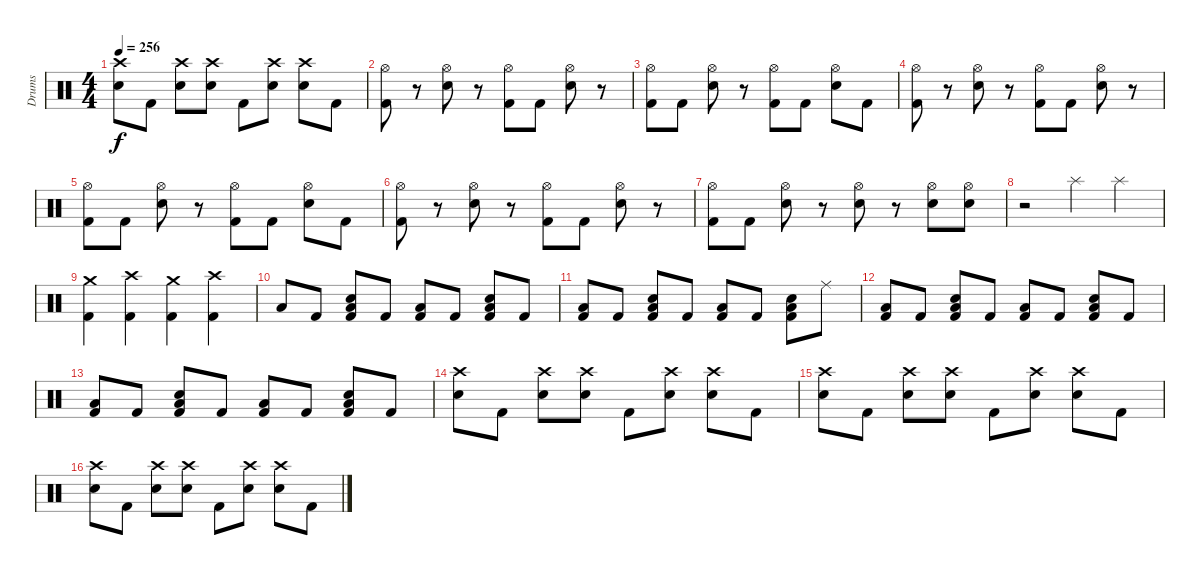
\track ("Drums" "Drums") {instrument percussion}
\staff {score}
\articulation defaults
\ts (4 4)
\tempo 256
\clef neutral
\ks c
("Crash high (hit)" "Electric Snare (hit)").8{dy f} "Kick (hit) 2".8 ("Crash high (hit)" "Electric Snare (hit)").8 ("Crash high (hit)" "Electric Snare (hit)").8 "Kick (hit) 2".8 ("Crash high (hit)" "Electric Snare (hit)").8 ("Crash high (hit)" "Electric Snare (hit)").8 "Kick (hit) 2".8 |
("Hi-Hat (open)" "Kick (hit) 2").8 r.8 ("Hi-Hat (open)" "Electric Snare (hit)").8 r.8 ("Hi-Hat (open)" "Kick (hit) 2").8 "Kick (hit) 2".8 ("Hi-Hat (open)" "Electric Snare (hit)").8 r.8 |
("Hi-Hat (open)" "Kick (hit) 2").8 "Kick (hit) 2".8 ("Hi-Hat (open)" "Electric Snare (hit)").8 r.8 ("Hi-Hat (open)" "Kick (hit) 2").8 "Kick (hit) 2".8 ("Hi-Hat (open)" "Electric Snare (hit)").8 "Kick (hit) 2".8 |
("Hi-Hat (open)" "Kick (hit) 2").8 r.8 ("Hi-Hat (open)" "Electric Snare (hit)").8 r.8 ("Hi-Hat (open)" "Kick (hit) 2").8 "Kick (hit) 2".8 ("Hi-Hat (open)" "Electric Snare (hit)").8 r.8 |
("Hi-Hat (open)" "Kick (hit) 2").8 "Kick (hit) 2".8 ("Hi-Hat (open)" "Electric Snare (hit)").8 r.8 ("Hi-Hat (open)" "Kick (hit) 2").8 "Kick (hit) 2".8 ("Hi-Hat (open)" "Electric Snare (hit)").8 "Kick (hit) 2".8 |
("Hi-Hat (open)" "Kick (hit) 2").8 r.8 ("Hi-Hat (open)" "Electric Snare (hit)").8 r.8 ("Hi-Hat (open)" "Kick (hit) 2").8 "Kick (hit) 2".8 ("Hi-Hat (open)" "Electric Snare (hit)").8 r.8 |
("Hi-Hat (open)" "Kick (hit) 2").8 "Kick (hit) 2".8 ("Hi-Hat (open)" "Electric Snare (hit)").8 r.8 ("Hi-Hat (open)" "Electric Snare (hit)").8 r.8 ("Hi-Hat (open)" "Electric Snare (hit)").8 ("Hi-Hat (open)" "Electric Snare (hit)").8 |
r.2 "Splash (hit)".4 "Splash (hit)".4 |
("Crash medium (hit)" "Kick (hit) 2").4 ("Crash high (hit)" "Kick (hit) 2").4 ("Crash medium (hit)" "Kick (hit) 2").4 ("Crash high (hit)" "Kick (hit) 2").4 |
"Low Tom (hit)".8 "Kick (hit) 2".8 ("Low Tom (hit)" "Electric Snare (hit)" "Kick (hit) 2").8 "Kick (hit) 2".8 ("Low Tom (hit)" "Kick (hit) 2").8 "Kick (hit) 2".8 ("Low Tom (hit)" "Electric Snare (hit)" "Kick (hit) 2").8 "Kick (hit) 2".8 |
("Low Tom (hit)" "Kick (hit) 2").8 "Kick (hit) 2".8 ("Low Tom (hit)" "Electric Snare (hit)" "Kick (hit) 2").8 "Kick (hit) 2".8 ("Low Tom (hit)" "Kick (hit) 2").8 "Kick (hit) 2".8 ("Low Tom (hit)" "Electric Snare (hit)" "Kick (hit) 2").8 "Ride (middle)".8 |
("Low Tom (hit)" "Kick (hit) 2").8 "Kick (hit) 2".8 ("Low Tom (hit)" "Electric Snare (hit)" "Kick (hit) 2").8 "Kick (hit) 2".8 ("Low Tom (hit)" "Kick (hit) 2").8 "Kick (hit) 2".8 ("Low Tom (hit)" "Electric Snare (hit)" "Kick (hit) 2").8 "Kick (hit) 2".8 |
("Low Tom (hit)" "Kick (hit) 2").8 "Kick (hit) 2".8 ("Low Tom (hit)" "Electric Snare (hit)" "Kick (hit) 2").8 "Kick (hit) 2".8 ("Low Tom (hit)" "Kick (hit) 2").8 "Kick (hit) 2".8 ("Low Tom (hit)" "Electric Snare (hit)" "Kick (hit) 2").8 "Kick (hit) 2".8 |
("Crash high (hit)" "Electric Snare (hit)").8 "Kick (hit) 2".8 ("Crash high (hit)" "Electric Snare (hit)").8 ("Crash high (hit)" "Electric Snare (hit)").8 "Kick (hit) 2".8 ("Crash high (hit)" "Electric Snare (hit)").8 ("Crash high (hit)" "Electric Snare (hit)").8 "Kick (hit) 2".8 |
("Crash high (hit)" "Electric Snare (hit)").8 "Kick (hit) 2".8 ("Crash high (hit)" "Electric Snare (hit)").8 ("Crash high (hit)" "Electric Snare (hit)").8 "Kick (hit) 2".8 ("Crash high (hit)" "Electric Snare (hit)").8 ("Crash high (hit)" "Electric Snare (hit)").8 "Kick (hit) 2".8 |
("Crash high (hit)" "Electric Snare (hit)").8 "Kick (hit) 2".8 ("Crash high (hit)" "Electric Snare (hit)").8 ("Crash high (hit)" "Electric Snare (hit)").8 "Kick (hit) 2".8 ("Crash high (hit)" "Electric Snare (hit)").8 ("Crash high (hit)" "Electric Snare (hit)").8 "Kick (hit) 2".8
